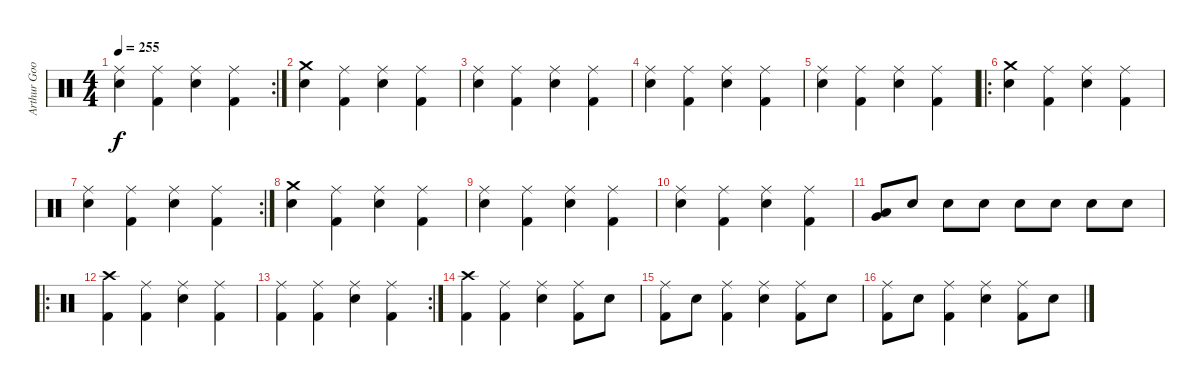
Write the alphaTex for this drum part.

\track ("Arthur Googy" "Arthur Goo") {instrument percussion}
\staff {score}
\articulation defaults
\rc 2
\ts (4 4)
\tempo 255
\clef neutral
\ks c
("Ride (middle)" "Electric Snare (hit)").4{dy f} ("Ride (middle)" "Kick (hit) 2").4 ("Ride (middle)" "Electric Snare (hit)").4 ("Ride (middle)" "Kick (hit) 2").4 |
("Crash medium (hit)" "Electric Snare (hit)").4 ("Ride (middle)" "Kick (hit) 2").4 ("Ride (middle)" "Electric Snare (hit)").4 ("Ride (middle)" "Kick (hit) 2").4 |
("Ride (middle)" "Electric Snare (hit)").4 ("Ride (middle)" "Kick (hit) 2").4 ("Ride (middle)" "Electric Snare (hit)").4 ("Ride (middle)" "Kick (hit) 2").4 |
("Ride (middle)" "Electric Snare (hit)").4 ("Ride (middle)" "Kick (hit) 2").4 ("Ride (middle)" "Electric Snare (hit)").4 ("Ride (middle)" "Kick (hit) 2").4 |
("Ride (middle)" "Electric Snare (hit)").4 ("Ride (middle)" "Kick (hit) 2").4 ("Ride (middle)" "Electric Snare (hit)").4 ("Ride (middle)" "Kick (hit) 2").4 |
\ro
("Crash medium (hit)" "Electric Snare (hit)").4 ("Ride (middle)" "Kick (hit) 2").4 ("Ride (middle)" "Electric Snare (hit)").4 ("Ride (middle)" "Kick (hit) 2").4 |
\rc 2
("Ride (middle)" "Electric Snare (hit)").4 ("Ride (middle)" "Kick (hit) 2").4 ("Ride (middle)" "Electric Snare (hit)").4 ("Ride (middle)" "Kick (hit) 2").4 |
("Crash medium (hit)" "Electric Snare (hit)").4 ("Ride (middle)" "Kick (hit) 2").4 ("Ride (middle)" "Electric Snare (hit)").4 ("Ride (middle)" "Kick (hit) 2").4 |
("Ride (middle)" "Electric Snare (hit)").4 ("Ride (middle)" "Kick (hit) 2").4 ("Ride (middle)" "Electric Snare (hit)").4 ("Ride (middle)" "Kick (hit) 2").4 |
("Ride (middle)" "Electric Snare (hit)").4 ("Ride (middle)" "Kick (hit) 2").4 ("Ride (middle)" "Electric Snare (hit)").4 ("Ride (middle)" "Kick (hit) 2").4 |
("Low Tom (hit)" "Very Low Tom (hit)").8 "Electric Snare (hit)".8 "Electric Snare (hit)".8 "Electric Snare (hit)".8 "Electric Snare (hit)".8 "Electric Snare (hit)".8 "Electric Snare (hit)".8 "Electric Snare (hit)".8 |
\ro
("Crash high (hit)" "Kick (hit) 2").4 ("Ride (middle)" "Kick (hit) 2").4 ("Ride (middle)" "Electric Snare (hit)").4 ("Ride (middle)" "Kick (hit) 2").4 |
\rc 2
("Ride (middle)" "Kick (hit) 2").4 ("Ride (middle)" "Kick (hit) 2").4 ("Ride (middle)" "Electric Snare (hit)").4 ("Ride (middle)" "Kick (hit) 2").4 |
("Crash high (hit)" "Kick (hit) 2").4 ("Ride (middle)" "Kick (hit) 2").4 ("Ride (middle)" "Electric Snare (hit)").4 ("Ride (middle)" "Kick (hit) 2").8 "Electric Snare (hit)".8 |
("Ride (middle)" "Kick (hit) 2").8 "Electric Snare (hit)".8 ("Ride (middle)" "Kick (hit) 2").4 ("Ride (middle)" "Electric Snare (hit)").4 ("Ride (middle)" "Kick (hit) 2").8 "Electric Snare (hit)".8 |
("Ride (middle)" "Kick (hit) 2").8 "Electric Snare (hit)".8 ("Ride (middle)" "Kick (hit) 2").4 ("Ride (middle)" "Electric Snare (hit)").4 ("Ride (middle)" "Kick (hit) 2").8 "Electric Snare (hit)".8
